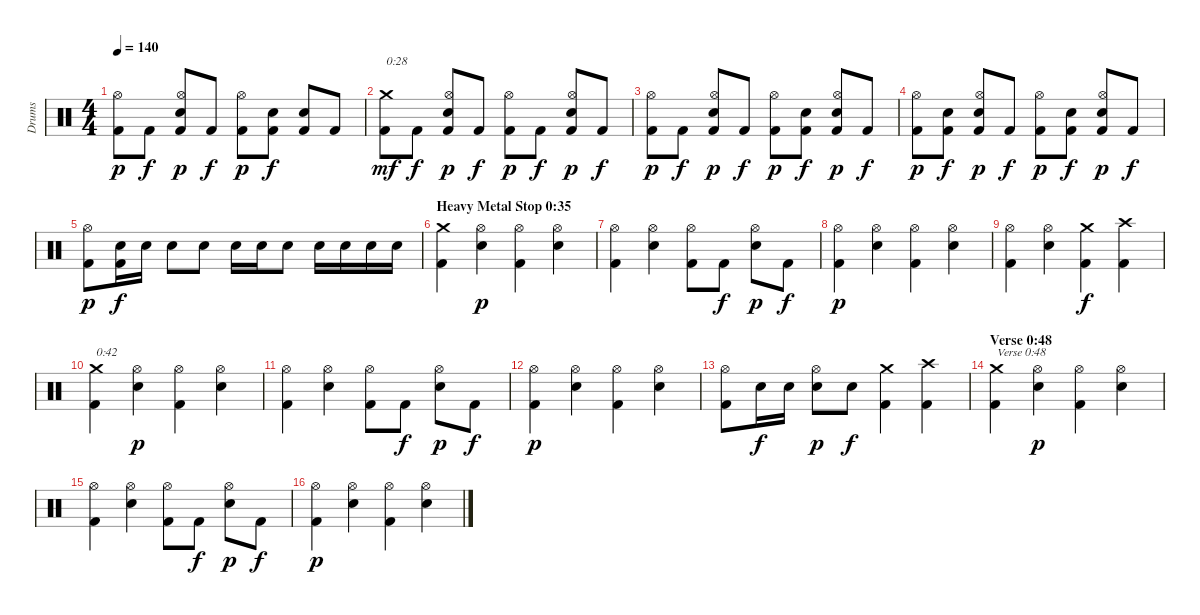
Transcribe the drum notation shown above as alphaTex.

\track ("Drums" "Drums") {instrument percussion}
\staff {score}
\articulation defaults
\ts (4 4)
\tempo 140
\clef neutral
\ks c
("Kick (hit) 2" "Hi-Hat (open)").8{dy p} "Kick (hit) 2".8{dy f} ("Kick (hit) 2" "Electric Snare (hit)" "Hi-Hat (open)").8{dy p} "Kick (hit) 2".8{dy f} ("Kick (hit) 2" "Hi-Hat (open)").8{dy p} ("Kick (hit) 2" "Electric Snare (hit)").8{dy f} ("Kick (hit) 2" "Electric Snare (hit)").8 "Kick (hit) 2".8 |
("Kick (hit) 2" "Crash medium (hit)").8{txt "0:28" dy mf} "Kick (hit) 2".8{dy f} ("Kick (hit) 2" "Electric Snare (hit)" "Hi-Hat (open)").8{dy p} "Kick (hit) 2".8{dy f} ("Kick (hit) 2" "Hi-Hat (open)").8{dy p} "Kick (hit) 2".8{dy f} ("Kick (hit) 2" "Electric Snare (hit)" "Hi-Hat (open)").8{dy p} "Kick (hit) 2".8{dy f} |
("Kick (hit) 2" "Hi-Hat (open)").8{dy p} "Kick (hit) 2".8{dy f} ("Kick (hit) 2" "Electric Snare (hit)" "Hi-Hat (open)").8{dy p} "Kick (hit) 2".8{dy f} ("Kick (hit) 2" "Hi-Hat (open)").8{dy p} ("Kick (hit) 2" "Electric Snare (hit)").8{dy f} ("Kick (hit) 2" "Electric Snare (hit)" "Hi-Hat (open)").8{dy p} "Kick (hit) 2".8{dy f} |
("Kick (hit) 2" "Hi-Hat (open)").8{dy p} ("Kick (hit) 2" "Electric Snare (hit)").8{dy f} ("Kick (hit) 2" "Electric Snare (hit)" "Hi-Hat (open)").8{dy p} "Kick (hit) 2".8{dy f} ("Kick (hit) 2" "Hi-Hat (open)").8{dy p} ("Kick (hit) 2" "Electric Snare (hit)").8{dy f} ("Kick (hit) 2" "Electric Snare (hit)" "Hi-Hat (open)").8{dy p} "Kick (hit) 2".8{dy f} |
("Kick (hit) 2" "Hi-Hat (open)").8{dy p} ("Kick (hit) 2" "Electric Snare (hit)").16{dy f} "Electric Snare (hit)".16 "Electric Snare (hit)".8 "Electric Snare (hit)".8 "Electric Snare (hit)".16 "Electric Snare (hit)".16 "Electric Snare (hit)".8 "Electric Snare (hit)".16 "Electric Snare (hit)".16 "Electric Snare (hit)".16 "Electric Snare (hit)".16 |
\section ("" "Heavy Metal Stop 0:35")
("Kick (hit) 2" "Crash medium (hit)").4 ("Electric Snare (hit)" "Hi-Hat (open)").4{dy p} ("Kick (hit) 2" "Hi-Hat (open)").4 ("Electric Snare (hit)" "Hi-Hat (open)").4 |
("Kick (hit) 2" "Hi-Hat (open)").4 ("Electric Snare (hit)" "Hi-Hat (open)").4 ("Kick (hit) 2" "Hi-Hat (open)").8 "Kick (hit) 2".8{dy f} ("Electric Snare (hit)" "Hi-Hat (open)").8{dy p} "Kick (hit) 2".8{dy f} |
("Kick (hit) 2" "Hi-Hat (open)").4{dy p} ("Electric Snare (hit)" "Hi-Hat (open)").4 ("Kick (hit) 2" "Hi-Hat (open)").4 ("Electric Snare (hit)" "Hi-Hat (open)").4 |
("Kick (hit) 2" "Hi-Hat (open)").4 ("Electric Snare (hit)" "Hi-Hat (open)").4 ("Kick (hit) 2" "Crash medium (hit)").4{dy f} ("Kick (hit) 2" "Crash high (hit)").4 |
("Kick (hit) 2" "Crash medium (hit)").4{txt "0:42"} ("Electric Snare (hit)" "Hi-Hat (open)").4{dy p} ("Kick (hit) 2" "Hi-Hat (open)").4 ("Electric Snare (hit)" "Hi-Hat (open)").4 |
("Kick (hit) 2" "Hi-Hat (open)").4 ("Electric Snare (hit)" "Hi-Hat (open)").4 ("Kick (hit) 2" "Hi-Hat (open)").8 "Kick (hit) 2".8{dy f} ("Electric Snare (hit)" "Hi-Hat (open)").8{dy p} "Kick (hit) 2".8{dy f} |
("Kick (hit) 2" "Hi-Hat (open)").4{dy p} ("Electric Snare (hit)" "Hi-Hat (open)").4 ("Kick (hit) 2" "Hi-Hat (open)").4 ("Electric Snare (hit)" "Hi-Hat (open)").4 |
("Kick (hit) 2" "Hi-Hat (open)").8 "Electric Snare (hit)".16{dy f} "Electric Snare (hit)".16 ("Electric Snare (hit)" "Hi-Hat (open)").8{dy p} "Electric Snare (hit)".8{dy f} ("Kick (hit) 2" "Crash medium (hit)").4 ("Kick (hit) 2" "Crash high (hit)").4 |
\section ("" "Verse 0:48")
("Kick (hit) 2" "Crash medium (hit)").4{txt "Verse 0:48"} ("Electric Snare (hit)" "Hi-Hat (open)").4{dy p} ("Kick (hit) 2" "Hi-Hat (open)").4 ("Electric Snare (hit)" "Hi-Hat (open)").4 |
("Kick (hit) 2" "Hi-Hat (open)").4 ("Electric Snare (hit)" "Hi-Hat (open)").4 ("Kick (hit) 2" "Hi-Hat (open)").8 "Kick (hit) 2".8{dy f} ("Electric Snare (hit)" "Hi-Hat (open)").8{dy p} "Kick (hit) 2".8{dy f} |
("Kick (hit) 2" "Hi-Hat (open)").4{dy p} ("Electric Snare (hit)" "Hi-Hat (open)").4 ("Kick (hit) 2" "Hi-Hat (open)").4 ("Electric Snare (hit)" "Hi-Hat (open)").4
